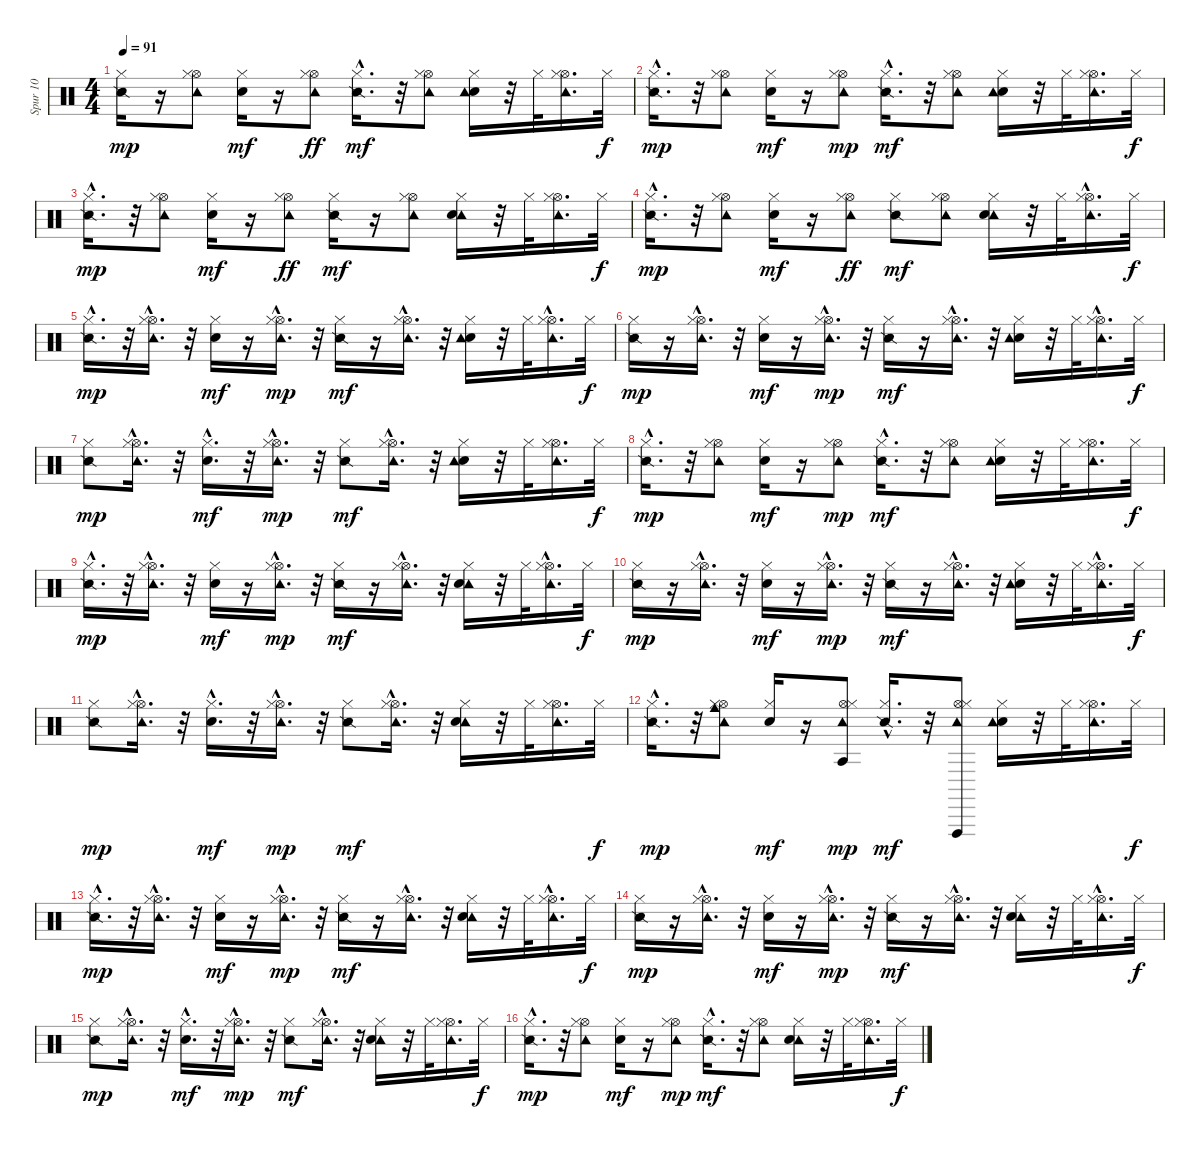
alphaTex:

\track ("Spur 10" "Spur 10") {instrument percussion}
\staff {score}
\articulation defaults
\ts (4 4)
\tempo 91
\clef neutral
\ks c
("Snare (side stick) 2" "Hi-Hat (closed)").16{dy mp} r.16 ("Tambourine (hit)" "Hi-Hat (open)" "Hi-Hat (closed)").8 ("Electric Snare (hit)" "Hi-Hat (closed)").16{dy mf} r.16 ("Tambourine (hit)" "Hi-Hat (open)" "Hi-Hat (closed)").8{dy ff} ("Snare (side stick) 2"{hac} "Hi-Hat (closed)").16{d dy mf} r.32 ("Tambourine (hit)" "Hi-Hat (open)" "Hi-Hat (closed)").8 ("Electric Snare (hit)" "Tambourine (hit)" "Hi-Hat (closed)").16 r.32 "Hi-Hat (closed)".32 ("Tambourine (hit)" "Hi-Hat (open)" "Hi-Hat (closed)").16{d} "Hi-Hat (closed)".32{dy f} |
("Snare (side stick) 2"{hac} "Hi-Hat (closed)").16{d dy mp} r.32 ("Tambourine (hit)" "Hi-Hat (open)" "Hi-Hat (closed)").8 ("Electric Snare (hit)" "Hi-Hat (closed)").16{dy mf} r.16 ("Tambourine (hit)" "Hi-Hat (open)" "Hi-Hat (closed)").8{dy mp} ("Snare (side stick) 2"{hac} "Hi-Hat (closed)").16{d dy mf} r.32 ("Tambourine (hit)" "Hi-Hat (open)" "Hi-Hat (closed)").8 ("Electric Snare (hit)" "Tambourine (hit)" "Hi-Hat (closed)").16 r.32 "Hi-Hat (closed)".32 ("Tambourine (hit)" "Hi-Hat (open)" "Hi-Hat (closed)").16{d} "Hi-Hat (closed)".32{dy f} |
("Snare (side stick) 2"{hac} "Hi-Hat (closed)").16{d dy mp} r.32 ("Tambourine (hit)" "Hi-Hat (open)" "Hi-Hat (closed)").8 ("Electric Snare (hit)" "Hi-Hat (closed)").16{dy mf} r.16 ("Tambourine (hit)" "Hi-Hat (open)" "Hi-Hat (closed)").8{dy ff} ("Snare (side stick) 2" "Hi-Hat (closed)").16{dy mf} r.16 ("Tambourine (hit)" "Hi-Hat (open)" "Hi-Hat (closed)").8 ("Tambourine (hit)" "Electric Snare (hit)" "Hi-Hat (closed)").16 r.32 "Hi-Hat (closed)".32 ("Tambourine (hit)" "Hi-Hat (open)" "Hi-Hat (closed)").16{d} "Hi-Hat (closed)".32{dy f} |
("Snare (side stick) 2"{hac} "Hi-Hat (closed)").16{d dy mp} r.32 ("Tambourine (hit)" "Hi-Hat (open)" "Hi-Hat (closed)").8 ("Electric Snare (hit)" "Hi-Hat (closed)").16{dy mf} r.16 ("Tambourine (hit)" "Hi-Hat (open)" "Hi-Hat (closed)").8{dy ff} ("Snare (side stick) 2" "Hi-Hat (closed)").8{dy mf} ("Tambourine (hit)" "Hi-Hat (open)" "Hi-Hat (closed)").8 ("Tambourine (hit)" "Electric Snare (hit)" "Hi-Hat (closed)").16 r.32 "Hi-Hat (closed)".32 ("Tambourine (hit)" "Hi-Hat (open)"{hac} "Hi-Hat (closed)").16{d} "Hi-Hat (closed)".32{dy f} |
("Snare (side stick) 2"{hac} "Hi-Hat (closed)").16{d dy mp} r.32 ("Tambourine (hit)" "Hi-Hat (open)"{hac} "Hi-Hat (closed)").16{d} r.32 ("Electric Snare (hit)" "Hi-Hat (closed)").16{dy mf} r.16 ("Tambourine (hit)" "Hi-Hat (open)"{hac} "Hi-Hat (closed)").16{d dy mp} r.32 ("Snare (side stick) 2" "Hi-Hat (closed)").16{dy mf} r.16 ("Tambourine (hit)" "Hi-Hat (open)"{hac} "Hi-Hat (closed)").16{d} r.32 ("Electric Snare (hit)" "Tambourine (hit)" "Hi-Hat (closed)").16 r.32 "Hi-Hat (closed)".32 ("Tambourine (hit)" "Hi-Hat (open)"{hac} "Hi-Hat (closed)").16{d} "Hi-Hat (closed)".32{dy f} |
("Snare (side stick) 2" "Hi-Hat (closed)").16{dy mp} r.16 ("Tambourine (hit)" "Hi-Hat (open)"{hac} "Hi-Hat (closed)").16{d} r.32 ("Electric Snare (hit)" "Hi-Hat (closed)").16{dy mf} r.16 ("Tambourine (hit)" "Hi-Hat (open)"{hac} "Hi-Hat (closed)").16{d dy mp} r.32 ("Snare (side stick) 2" "Hi-Hat (closed)").16{dy mf} r.16 ("Tambourine (hit)" "Hi-Hat (open)"{hac} "Hi-Hat (closed)").16{d} r.32 ("Electric Snare (hit)" "Tambourine (hit)" "Hi-Hat (closed)").16 r.32 "Hi-Hat (closed)".32 ("Tambourine (hit)" "Hi-Hat (open)"{hac} "Hi-Hat (closed)").16{d} "Hi-Hat (closed)".32{dy f} |
("Snare (side stick) 2" "Hi-Hat (closed)").8{dy mp} ("Tambourine (hit)" "Hi-Hat (open)"{hac} "Hi-Hat (closed)").16{d} r.32 ("Electric Snare (hit)"{hac} "Hi-Hat (closed)").16{d dy mf} r.32 ("Tambourine (hit)" "Hi-Hat (open)"{hac} "Hi-Hat (closed)").16{d dy mp} r.32 ("Snare (side stick) 2" "Hi-Hat (closed)").8{dy mf} ("Tambourine (hit)" "Hi-Hat (open)"{hac} "Hi-Hat (closed)").16{d} r.32 ("Electric Snare (hit)" "Tambourine (hit)" "Hi-Hat (closed)").16 r.32 "Hi-Hat (closed)".32 ("Tambourine (hit)" "Hi-Hat (open)" "Hi-Hat (closed)").16{d} "Hi-Hat (closed)".32{dy f} |
("Snare (side stick) 2"{hac} "Hi-Hat (closed)").16{d dy mp} r.32 ("Tambourine (hit)" "Hi-Hat (open)" "Hi-Hat (closed)").8 ("Electric Snare (hit)" "Hi-Hat (closed)").16{dy mf} r.16 ("Tambourine (hit)" "Hi-Hat (open)" "Hi-Hat (closed)").8{dy mp} ("Snare (side stick) 2"{hac} "Hi-Hat (closed)").16{d dy mf} r.32 ("Tambourine (hit)" "Hi-Hat (open)" "Hi-Hat (closed)").8 ("Electric Snare (hit)" "Tambourine (hit)" "Hi-Hat (closed)").16 r.32 "Hi-Hat (closed)".32 ("Tambourine (hit)" "Hi-Hat (open)" "Hi-Hat (closed)").16{d} "Hi-Hat (closed)".32{dy f} |
("Snare (side stick) 2"{hac} "Hi-Hat (closed)").16{d dy mp} r.32 ("Tambourine (hit)" "Hi-Hat (open)"{hac} "Hi-Hat (closed)").16{d} r.32 ("Electric Snare (hit)" "Hi-Hat (closed)").16{dy mf} r.16 ("Tambourine (hit)" "Hi-Hat (open)"{hac} "Hi-Hat (closed)").16{d dy mp} r.32 ("Snare (side stick) 2" "Hi-Hat (closed)").16{dy mf} r.16 ("Tambourine (hit)" "Hi-Hat (open)"{hac} "Hi-Hat (closed)").16{d} r.32 ("Tambourine (hit)" "Electric Snare (hit)" "Hi-Hat (closed)").16 r.32 "Hi-Hat (closed)".32 ("Tambourine (hit)" "Hi-Hat (open)"{hac} "Hi-Hat (closed)").16{d} "Hi-Hat (closed)".32{dy f} |
("Snare (side stick) 2" "Hi-Hat (closed)").16{dy mp} r.16 ("Tambourine (hit)" "Hi-Hat (open)"{hac} "Hi-Hat (closed)").16{d} r.32 ("Electric Snare (hit)" "Hi-Hat (closed)").16{dy mf} r.16 ("Tambourine (hit)" "Hi-Hat (open)"{hac} "Hi-Hat (closed)").16{d dy mp} r.32 ("Snare (side stick) 2" "Hi-Hat (closed)").16{dy mf} r.16 ("Tambourine (hit)" "Hi-Hat (open)"{hac} "Hi-Hat (closed)").16{d} r.32 ("Electric Snare (hit)" "Tambourine (hit)" "Hi-Hat (closed)").16 r.32 "Hi-Hat (closed)".32 ("Tambourine (hit)" "Hi-Hat (open)"{hac} "Hi-Hat (closed)").16{d} "Hi-Hat (closed)".32{dy f} |
("Snare (side stick) 2" "Hi-Hat (closed)").8{dy mp} ("Tambourine (hit)" "Hi-Hat (open)"{hac} "Hi-Hat (closed)").16{d} r.32 ("Electric Snare (hit)"{hac} "Hi-Hat (closed)").16{d dy mf} r.32 ("Tambourine (hit)" "Hi-Hat (open)"{hac} "Hi-Hat (closed)").16{d dy mp} r.32 ("Snare (side stick) 2" "Hi-Hat (closed)").8{dy mf} ("Tambourine (hit)" "Hi-Hat (open)"{hac} "Hi-Hat (closed)").16{d} r.32 ("Tambourine (hit)" "Electric Snare (hit)" "Hi-Hat (closed)").16 r.32 "Hi-Hat (closed)".32 ("Tambourine (hit)" "Hi-Hat (open)" "Hi-Hat (closed)").16{d} "Hi-Hat (closed)".32{dy f} |
("Snare (side stick) 2"{hac} "Hi-Hat (closed)").16{d dy mp} r.32 ("Tambourine (hit)" "Hi-Hat (open)" "Cowbell medium (hit)" "Hi-Hat (closed)").8 ("Electric Snare (hit)" "Hi-Hat (closed)").16{dy mf} r.16 ("Tambourine (hit)" "Hi-Hat (open)" "Hi-Hat (closed)" "Agogo tow (hit)").8{dy mp} ("Snare (side stick) 2"{hac} "Hi-Hat (closed)").16{d dy mf} r.32 ("Tambourine (hit)" "Vibraslap (hit)" "Hi-Hat (open)" "Hi-Hat (closed)").8 ("Electric Snare (hit)" "Tambourine (hit)" "Hi-Hat (closed)").16 r.32 "Hi-Hat (closed)".32 ("Tambourine (hit)" "Hi-Hat (open)" "Hi-Hat (closed)").16{d} "Hi-Hat (closed)".32{dy f} |
("Snare (side stick) 2"{hac} "Hi-Hat (closed)").16{d dy mp} r.32 ("Tambourine (hit)" "Hi-Hat (open)"{hac} "Hi-Hat (closed)").16{d} r.32 ("Electric Snare (hit)" "Hi-Hat (closed)").16{dy mf} r.16 ("Tambourine (hit)" "Hi-Hat (open)"{hac} "Hi-Hat (closed)").16{d dy mp} r.32 ("Snare (side stick) 2" "Hi-Hat (closed)").16{dy mf} r.16 ("Tambourine (hit)" "Hi-Hat (open)"{hac} "Hi-Hat (closed)").16{d} r.32 ("Tambourine (hit)" "Electric Snare (hit)" "Hi-Hat (closed)").16 r.32 "Hi-Hat (closed)".32 ("Tambourine (hit)" "Hi-Hat (open)"{hac} "Hi-Hat (closed)").16{d} "Hi-Hat (closed)".32{dy f} |
("Snare (side stick) 2" "Hi-Hat (closed)").16{dy mp} r.16 ("Tambourine (hit)" "Hi-Hat (open)"{hac} "Hi-Hat (closed)").16{d} r.32 ("Electric Snare (hit)" "Hi-Hat (closed)").16{dy mf} r.16 ("Tambourine (hit)" "Hi-Hat (open)"{hac} "Hi-Hat (closed)").16{d dy mp} r.32 ("Snare (side stick) 2" "Hi-Hat (closed)").16{dy mf} r.16 ("Tambourine (hit)" "Hi-Hat (open)"{hac} "Hi-Hat (closed)").16{d} r.32 ("Tambourine (hit)" "Electric Snare (hit)" "Hi-Hat (closed)").16 r.32 "Hi-Hat (closed)".32 ("Tambourine (hit)" "Hi-Hat (open)"{hac} "Hi-Hat (closed)").16{d} "Hi-Hat (closed)".32{dy f} |
("Snare (side stick) 2" "Hi-Hat (closed)").8{dy mp} ("Tambourine (hit)" "Hi-Hat (open)"{hac} "Hi-Hat (closed)").16{d} r.32 ("Electric Snare (hit)"{hac} "Hi-Hat (closed)").16{d dy mf} r.32 ("Tambourine (hit)" "Hi-Hat (open)"{hac} "Hi-Hat (closed)").16{d dy mp} r.32 ("Snare (side stick) 2" "Hi-Hat (closed)").8{dy mf} ("Tambourine (hit)" "Hi-Hat (open)"{hac} "Hi-Hat (closed)").16{d} r.32 ("Tambourine (hit)" "Electric Snare (hit)" "Hi-Hat (closed)").16 r.32 "Hi-Hat (closed)".32 ("Tambourine (hit)" "Hi-Hat (open)" "Hi-Hat (closed)").16{d} "Hi-Hat (closed)".32{dy f} |
("Snare (side stick) 2"{hac} "Hi-Hat (closed)").16{d dy mp} r.32 ("Tambourine (hit)" "Hi-Hat (open)" "Hi-Hat (closed)").8 ("Electric Snare (hit)" "Hi-Hat (closed)").16{dy mf} r.16 ("Tambourine (hit)" "Hi-Hat (open)" "Hi-Hat (closed)").8{dy mp} ("Snare (side stick) 2"{hac} "Hi-Hat (closed)").16{d dy mf} r.32 ("Tambourine (hit)" "Hi-Hat (open)" "Hi-Hat (closed)").8 ("Tambourine (hit)" "Electric Snare (hit)" "Hi-Hat (closed)").16 r.32 "Hi-Hat (closed)".32 ("Tambourine (hit)" "Hi-Hat (open)" "Hi-Hat (closed)").16{d} "Hi-Hat (closed)".32{dy f}
